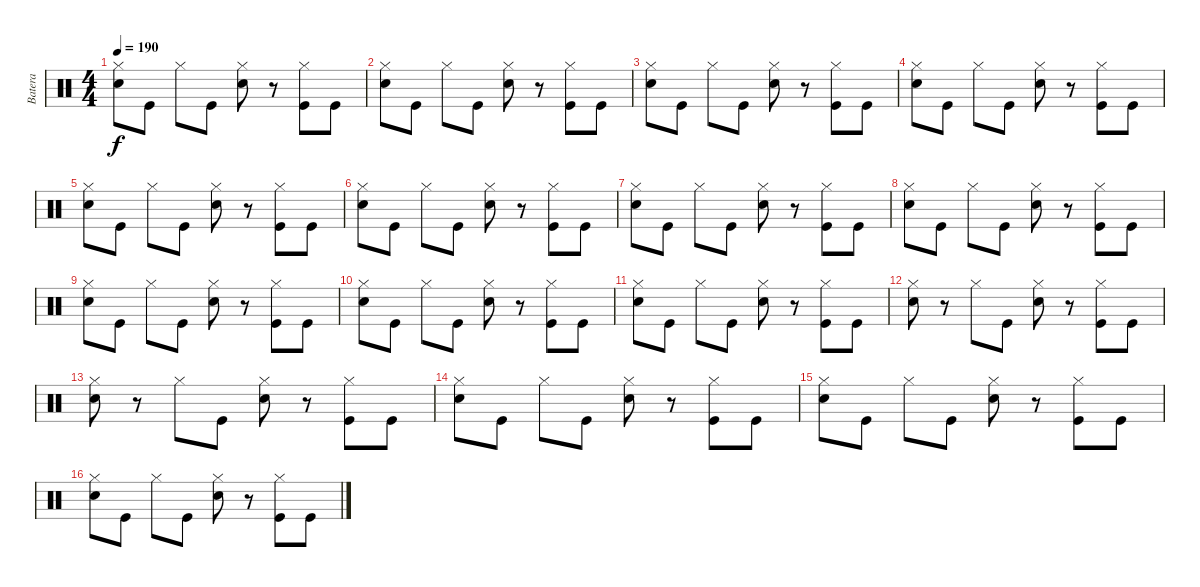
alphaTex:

\track ("Batera" "Batera") {instrument percussion}
\staff {score}
\articulation defaults
\ts (4 4)
\tempo 190
\clef neutral
\ks c
("Hi-Hat (closed)" "Snare (hit) 2").8{dy f} "Kick (hit)".8 "Hi-Hat (closed)".8 "Kick (hit)".8 ("Hi-Hat (closed)" "Snare (hit) 2").8 r.8 ("Hi-Hat (closed)" "Kick (hit)").8 "Kick (hit)".8 |
("Hi-Hat (closed)" "Snare (hit) 2").8 "Kick (hit)".8 "Hi-Hat (closed)".8 "Kick (hit)".8 ("Hi-Hat (closed)" "Snare (hit) 2").8 r.8 ("Hi-Hat (closed)" "Kick (hit)").8 "Kick (hit)".8 |
("Hi-Hat (closed)" "Snare (hit) 2").8 "Kick (hit)".8 "Hi-Hat (closed)".8 "Kick (hit)".8 ("Hi-Hat (closed)" "Snare (hit) 2").8 r.8 ("Hi-Hat (closed)" "Kick (hit)").8 "Kick (hit)".8 |
("Hi-Hat (closed)" "Snare (hit) 2").8 "Kick (hit)".8 "Hi-Hat (closed)".8 "Kick (hit)".8 ("Hi-Hat (closed)" "Snare (hit) 2").8 r.8 ("Hi-Hat (closed)" "Kick (hit)").8 "Kick (hit)".8 |
("Hi-Hat (closed)" "Snare (hit) 2").8 "Kick (hit)".8 "Hi-Hat (closed)".8 "Kick (hit)".8 ("Hi-Hat (closed)" "Snare (hit) 2").8 r.8 ("Hi-Hat (closed)" "Kick (hit)").8 "Kick (hit)".8 |
("Hi-Hat (closed)" "Snare (hit) 2").8 "Kick (hit)".8 "Hi-Hat (closed)".8 "Kick (hit)".8 ("Hi-Hat (closed)" "Snare (hit) 2").8 r.8 ("Hi-Hat (closed)" "Kick (hit)").8 "Kick (hit)".8 |
("Hi-Hat (closed)" "Snare (hit) 2").8 "Kick (hit)".8 "Hi-Hat (closed)".8 "Kick (hit)".8 ("Hi-Hat (closed)" "Snare (hit) 2").8 r.8 ("Hi-Hat (closed)" "Kick (hit)").8 "Kick (hit)".8 |
("Hi-Hat (closed)" "Snare (hit) 2").8 "Kick (hit)".8 "Hi-Hat (closed)".8 "Kick (hit)".8 ("Hi-Hat (closed)" "Snare (hit) 2").8 r.8 ("Hi-Hat (closed)" "Kick (hit)").8 "Kick (hit)".8 |
("Hi-Hat (closed)" "Snare (hit) 2").8 "Kick (hit)".8 "Hi-Hat (closed)".8 "Kick (hit)".8 ("Hi-Hat (closed)" "Snare (hit) 2").8 r.8 ("Hi-Hat (closed)" "Kick (hit)").8 "Kick (hit)".8 |
("Hi-Hat (closed)" "Snare (hit) 2").8 "Kick (hit)".8 "Hi-Hat (closed)".8 "Kick (hit)".8 ("Hi-Hat (closed)" "Snare (hit) 2").8 r.8 ("Hi-Hat (closed)" "Kick (hit)").8 "Kick (hit)".8 |
("Hi-Hat (closed)" "Snare (hit) 2").8 "Kick (hit)".8 "Hi-Hat (closed)".8 "Kick (hit)".8 ("Hi-Hat (closed)" "Snare (hit) 2").8 r.8 ("Hi-Hat (closed)" "Kick (hit)").8 "Kick (hit)".8 |
("Hi-Hat (closed)" "Snare (hit) 2").8 r.8 "Hi-Hat (closed)".8 "Kick (hit)".8 ("Hi-Hat (closed)" "Snare (hit) 2").8 r.8 ("Hi-Hat (closed)" "Kick (hit)").8 "Kick (hit)".8 |
("Hi-Hat (closed)" "Snare (hit) 2").8 r.8 "Hi-Hat (closed)".8 "Kick (hit)".8 ("Hi-Hat (closed)" "Snare (hit) 2").8 r.8 ("Hi-Hat (closed)" "Kick (hit)").8 "Kick (hit)".8 |
("Hi-Hat (closed)" "Snare (hit) 2").8 "Kick (hit)".8 "Hi-Hat (closed)".8 "Kick (hit)".8 ("Hi-Hat (closed)" "Snare (hit) 2").8 r.8 ("Hi-Hat (closed)" "Kick (hit)").8 "Kick (hit)".8 |
("Hi-Hat (closed)" "Snare (hit) 2").8 "Kick (hit)".8 "Hi-Hat (closed)".8 "Kick (hit)".8 ("Hi-Hat (closed)" "Snare (hit) 2").8 r.8 ("Hi-Hat (closed)" "Kick (hit)").8 "Kick (hit)".8 |
("Hi-Hat (closed)" "Snare (hit) 2").8 "Kick (hit)".8 "Hi-Hat (closed)".8 "Kick (hit)".8 ("Hi-Hat (closed)" "Snare (hit) 2").8 r.8 ("Hi-Hat (closed)" "Kick (hit)").8 "Kick (hit)".8
